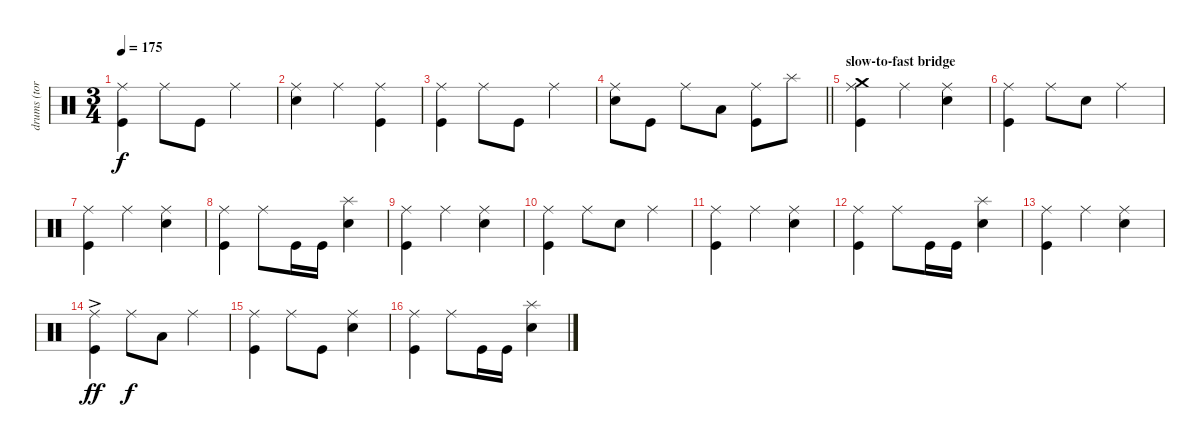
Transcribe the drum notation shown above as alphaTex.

\track ("drums (tora)" "drums (tor") {instrument percussion}
\staff {score}
\articulation defaults
\ts (3 4)
\tempo 175
\clef neutral
\ks c
("Ride (middle)" "Kick (hit)").4{dy f} "Ride (middle)".8 "Kick (hit)".8 "Ride (middle)".4 |
("Ride (middle)" "Snare (hit) 2").4 "Ride (middle)".4 ("Ride (middle)" "Kick (hit)").4 |
("Ride (middle)" "Kick (hit)").4 "Ride (middle)".8 "Kick (hit)".8 "Ride (middle)".4 |
\barLineRight lightlight
("Ride (middle)" "Snare (hit) 2").8 "Kick (hit)".8 "Ride (middle)".8 "Low Tom (hit)".8 ("Ride (middle)" "Kick (hit)").8 "Splash (hit)".8 |
\section ("" "slow-to-fast bridge")
("Crash medium (hit)" "Ride (middle)" "Kick (hit)").4 "Ride (middle)".4 ("Ride (middle)" "Snare (hit) 2").4 |
("Ride (middle)" "Kick (hit)").4 "Ride (middle)".8 "Snare (hit) 2".8 "Ride (middle)".4 |
("Ride (middle)" "Kick (hit)").4 "Ride (middle)".4 ("Ride (middle)" "Snare (hit) 2").4 |
("Ride (middle)" "Kick (hit)").4 "Ride (middle)".8 "Kick (hit)".16 "Kick (hit)".16 ("Splash (hit)" "Snare (hit) 2").4 |
("Ride (middle)" "Kick (hit)").4 "Ride (middle)".4 ("Ride (middle)" "Snare (hit) 2").4 |
("Ride (middle)" "Kick (hit)").4 "Ride (middle)".8 "Snare (hit) 2".8 "Ride (middle)".4 |
("Ride (middle)" "Kick (hit)").4 "Ride (middle)".4 ("Ride (middle)" "Snare (hit) 2").4 |
("Ride (middle)" "Kick (hit)").4 "Ride (middle)".8 "Kick (hit)".16 "Kick (hit)".16 ("Splash (hit)" "Snare (hit) 2").4 |
("Ride (middle)" "Kick (hit)").4 "Ride (middle)".4 ("Ride (middle)" "Snare (hit) 2").4 |
("Ride (middle)"{ac} "Kick (hit)"{ac}).4{dy ff} "Ride (middle)".8{dy f} "Low Tom (hit)".8 "Ride (middle)".4 |
("Ride (middle)" "Kick (hit)").4 "Ride (middle)".8 "Kick (hit)".8 ("Ride (middle)" "Snare (hit) 2").4 |
("Ride (middle)" "Kick (hit)").4 "Ride (middle)".8 "Kick (hit)".16 "Kick (hit)".16 ("Splash (hit)" "Snare (hit) 2").4
